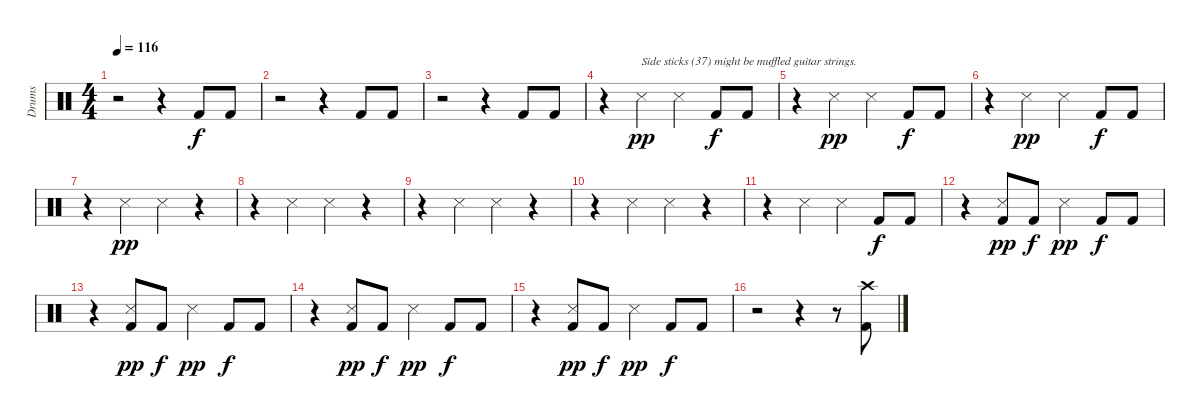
\track ("Drums" "Drums") {instrument percussion}
\staff {score}
\articulation defaults
\ts (4 4)
\tempo 116
\clef neutral
\ks c
r.2{dy f} r.4 "Kick (hit) 2".8 "Kick (hit) 2".8 |
r.2 r.4 "Kick (hit) 2".8 "Kick (hit) 2".8 |
r.2 r.4 "Kick (hit) 2".8 "Kick (hit) 2".8 |
r.4 "Snare (side stick) 3".4{txt "Side sticks (37) might be muffled guitar strings." dy pp} "Snare (side stick) 3".4 "Kick (hit) 2".8{dy f} "Kick (hit) 2".8 |
r.4 "Snare (side stick) 3".4{dy pp} "Snare (side stick) 3".4 "Kick (hit) 2".8{dy f} "Kick (hit) 2".8 |
r.4 "Snare (side stick) 3".4{dy pp} "Snare (side stick) 3".4 "Kick (hit) 2".8{dy f} "Kick (hit) 2".8 |
r.4 "Snare (side stick) 3".4{dy pp} "Snare (side stick) 3".4 r.4 |
r.4 "Snare (side stick) 3".4 "Snare (side stick) 3".4 r.4 |
r.4 "Snare (side stick) 3".4 "Snare (side stick) 3".4 r.4 |
r.4 "Snare (side stick) 3".4 "Snare (side stick) 3".4 r.4 |
r.4 "Snare (side stick) 3".4 "Snare (side stick) 3".4 "Kick (hit) 2".8{dy f} "Kick (hit) 2".8 |
r.4 ("Snare (side stick) 3" "Kick (hit) 2").8{dy pp} "Kick (hit) 2".8{dy f} "Snare (side stick) 3".4{dy pp} "Kick (hit) 2".8{dy f} "Kick (hit) 2".8 |
r.4 ("Snare (side stick) 3" "Kick (hit) 2").8{dy pp} "Kick (hit) 2".8{dy f} "Snare (side stick) 3".4{dy pp} "Kick (hit) 2".8{dy f} "Kick (hit) 2".8 |
r.4 ("Snare (side stick) 3" "Kick (hit) 2").8{dy pp} "Kick (hit) 2".8{dy f} "Snare (side stick) 3".4{dy pp} "Kick (hit) 2".8{dy f} "Kick (hit) 2".8 |
r.4 ("Snare (side stick) 3" "Kick (hit) 2").8{dy pp} "Kick (hit) 2".8{dy f} "Snare (side stick) 3".4{dy pp} "Kick (hit) 2".8{dy f} "Kick (hit) 2".8 |
r.2 r.4 r.8 ("Crash high (hit)" "Kick (hit) 2").8
